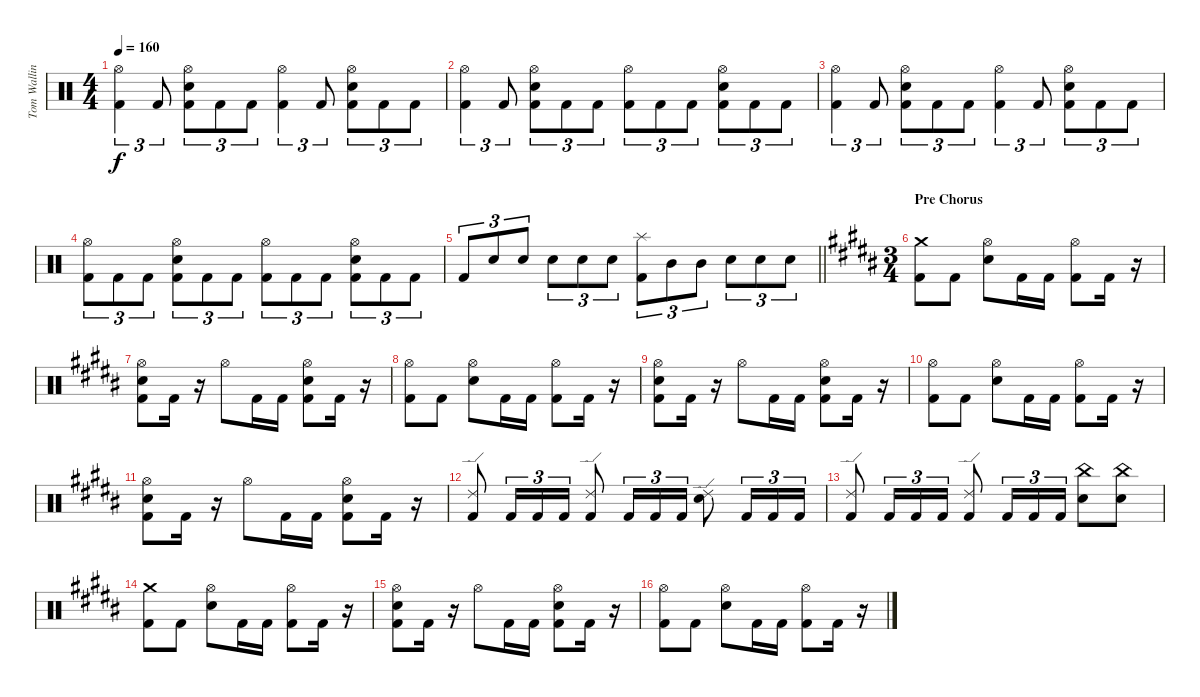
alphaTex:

\track ("Tom Walling (drums)" "Tom Wallin") {instrument percussion}
\staff {score}
\articulation defaults
\ts (4 4)
\tempo 160
\clef neutral
\ks aminor
("Hi-Hat (open)" "Kick (hit) 2").4{tu (3 2) dy f} "Kick (hit) 2".8{tu (3 2)} ("Hi-Hat (open)" "Electric Snare (hit)" "Kick (hit) 2").8{tu (3 2)} "Kick (hit) 2".8{tu (3 2)} "Kick (hit) 2".8{tu (3 2)} ("Hi-Hat (open)" "Kick (hit) 2").4{tu (3 2)} "Kick (hit) 2".8{tu (3 2)} ("Hi-Hat (open)" "Electric Snare (hit)" "Kick (hit) 2").8{tu (3 2)} "Kick (hit) 2".8{tu (3 2)} "Kick (hit) 2".8{tu (3 2)} |
("Hi-Hat (open)" "Kick (hit) 2").4{tu (3 2)} "Kick (hit) 2".8{tu (3 2)} ("Hi-Hat (open)" "Electric Snare (hit)" "Kick (hit) 2").8{tu (3 2)} "Kick (hit) 2".8{tu (3 2)} "Kick (hit) 2".8{tu (3 2)} ("Hi-Hat (open)" "Kick (hit) 2").8{tu (3 2)} "Kick (hit) 2".8{tu (3 2)} "Kick (hit) 2".8{tu (3 2)} ("Hi-Hat (open)" "Electric Snare (hit)" "Kick (hit) 2").8{tu (3 2)} "Kick (hit) 2".8{tu (3 2)} "Kick (hit) 2".8{tu (3 2)} |
("Hi-Hat (open)" "Kick (hit) 2").4{tu (3 2)} "Kick (hit) 2".8{tu (3 2)} ("Hi-Hat (open)" "Electric Snare (hit)" "Kick (hit) 2").8{tu (3 2)} "Kick (hit) 2".8{tu (3 2)} "Kick (hit) 2".8{tu (3 2)} ("Hi-Hat (open)" "Kick (hit) 2").4{tu (3 2)} "Kick (hit) 2".8{tu (3 2)} ("Hi-Hat (open)" "Electric Snare (hit)" "Kick (hit) 2").8{tu (3 2)} "Kick (hit) 2".8{tu (3 2)} "Kick (hit) 2".8{tu (3 2)} |
("Hi-Hat (open)" "Kick (hit) 2").8{tu (3 2)} "Kick (hit) 2".8{tu (3 2)} "Kick (hit) 2".8{tu (3 2)} ("Hi-Hat (open)" "Electric Snare (hit)" "Kick (hit) 2").8{tu (3 2)} "Kick (hit) 2".8{tu (3 2)} "Kick (hit) 2".8{tu (3 2)} ("Hi-Hat (open)" "Kick (hit) 2").8{tu (3 2)} "Kick (hit) 2".8{tu (3 2)} "Kick (hit) 2".8{tu (3 2)} ("Hi-Hat (open)" "Electric Snare (hit)" "Kick (hit) 2").8{tu (3 2)} "Kick (hit) 2".8{tu (3 2)} "Kick (hit) 2".8{tu (3 2)} |
\barLineRight lightlight "Kick (hit) 2".8{tu (3 2)} "Electric Snare (hit)".8{tu (3 2)} "Electric Snare (hit)".8{tu (3 2)} "Electric Snare (hit)".8{tu (3 2)} "Electric Snare (hit)".8{tu (3 2)} "Electric Snare (hit)".8{tu (3 2)}
("Splash (hit)" "Kick (hit) 2").8{tu (3 2)} "Mid Tom (hit)".8{tu (3 2)} "Mid Tom (hit)".8{tu (3 2)} "Electric Snare (hit)".8{tu (3 2)} "Electric Snare (hit)".8{tu (3 2)} "Electric Snare (hit)".8{tu (3 2)} |
\ts (3 4)
\section ("" "Pre Chorus")
\ks g#minor
("Kick (hit) 2" "Crash medium (hit)").8 "Kick (hit) 2".8 ("Electric Snare (hit)" "Hi-Hat (open)").8 "Kick (hit) 2".16 "Kick (hit) 2".16 ("Kick (hit) 2" "Hi-Hat (open)").8 "Kick (hit) 2".16 r.16 |
("Kick (hit) 2" "Electric Snare (hit)" "Hi-Hat (open)").8 "Kick (hit) 2".16 r.16 "Hi-Hat (open)".8 "Kick (hit) 2".16 "Kick (hit) 2".16 ("Kick (hit) 2" "Electric Snare (hit)" "Hi-Hat (open)").8 "Kick (hit) 2".16 r.16 |
("Hi-Hat (open)" "Kick (hit) 2").8 "Kick (hit) 2".8 ("Electric Snare (hit)" "Hi-Hat (open)").8 "Kick (hit) 2".16 "Kick (hit) 2".16 ("Kick (hit) 2" "Hi-Hat (open)").8 "Kick (hit) 2".16 r.16 |
("Kick (hit) 2" "Electric Snare (hit)" "Hi-Hat (open)").8 "Kick (hit) 2".16 r.16 "Hi-Hat (open)".8 "Kick (hit) 2".16 "Kick (hit) 2".16 ("Kick (hit) 2" "Electric Snare (hit)" "Hi-Hat (open)").8 "Kick (hit) 2".16 r.16 |
("Hi-Hat (open)" "Kick (hit) 2").8 "Kick (hit) 2".8 ("Electric Snare (hit)" "Hi-Hat (open)").8 "Kick (hit) 2".16 "Kick (hit) 2".16 ("Kick (hit) 2" "Hi-Hat (open)").8 "Kick (hit) 2".16 r.16 |
("Kick (hit) 2" "Electric Snare (hit)" "Hi-Hat (open)").8 "Kick (hit) 2".16 r.16 "Hi-Hat (open)".8 "Kick (hit) 2".16 "Kick (hit) 2".16 ("Kick (hit) 2" "Electric Snare (hit)" "Hi-Hat (open)").8 "Kick (hit) 2".16 r.16 |
("Kick (hit) 2" "Ride (edge) 2").8 "Kick (hit) 2".16{tu (3 2)} "Kick (hit) 2".16{tu (3 2)} "Kick (hit) 2".16{tu (3 2)} ("Kick (hit) 2" "Ride (edge) 2").8 "Kick (hit) 2".16{tu (3 2)} "Kick (hit) 2".16{tu (3 2)} "Kick (hit) 2".16{tu (3 2)} ("Electric Snare (hit)" "Ride (edge) 2").8 "Kick (hit) 2".16{tu (3 2)} "Kick (hit) 2".16{tu (3 2)} "Kick (hit) 2".16{tu (3 2)} |
("Kick (hit) 2" "Ride (edge) 2").8 "Kick (hit) 2".16{tu (3 2)} "Kick (hit) 2".16{tu (3 2)} "Kick (hit) 2".16{tu (3 2)} ("Kick (hit) 2" "Ride (edge) 2").8 "Kick (hit) 2".16{tu (3 2)} "Kick (hit) 2".16{tu (3 2)} "Kick (hit) 2".16{tu (3 2)} ("Electric Snare (hit)" "China (hit)").8 ("Electric Snare (hit)" "China (hit)").8 |
("Kick (hit) 2" "Crash medium (hit)").8 "Kick (hit) 2".8 ("Electric Snare (hit)" "Hi-Hat (open)").8 "Kick (hit) 2".16 "Kick (hit) 2".16 ("Kick (hit) 2" "Hi-Hat (open)").8 "Kick (hit) 2".16 r.16 |
("Kick (hit) 2" "Electric Snare (hit)" "Hi-Hat (open)").8 "Kick (hit) 2".16 r.16 "Hi-Hat (open)".8 "Kick (hit) 2".16 "Kick (hit) 2".16 ("Kick (hit) 2" "Electric Snare (hit)" "Hi-Hat (open)").8 "Kick (hit) 2".16 r.16 |
("Hi-Hat (open)" "Kick (hit) 2").8 "Kick (hit) 2".8 ("Electric Snare (hit)" "Hi-Hat (open)").8 "Kick (hit) 2".16 "Kick (hit) 2".16 ("Kick (hit) 2" "Hi-Hat (open)").8 "Kick (hit) 2".16 r.16
